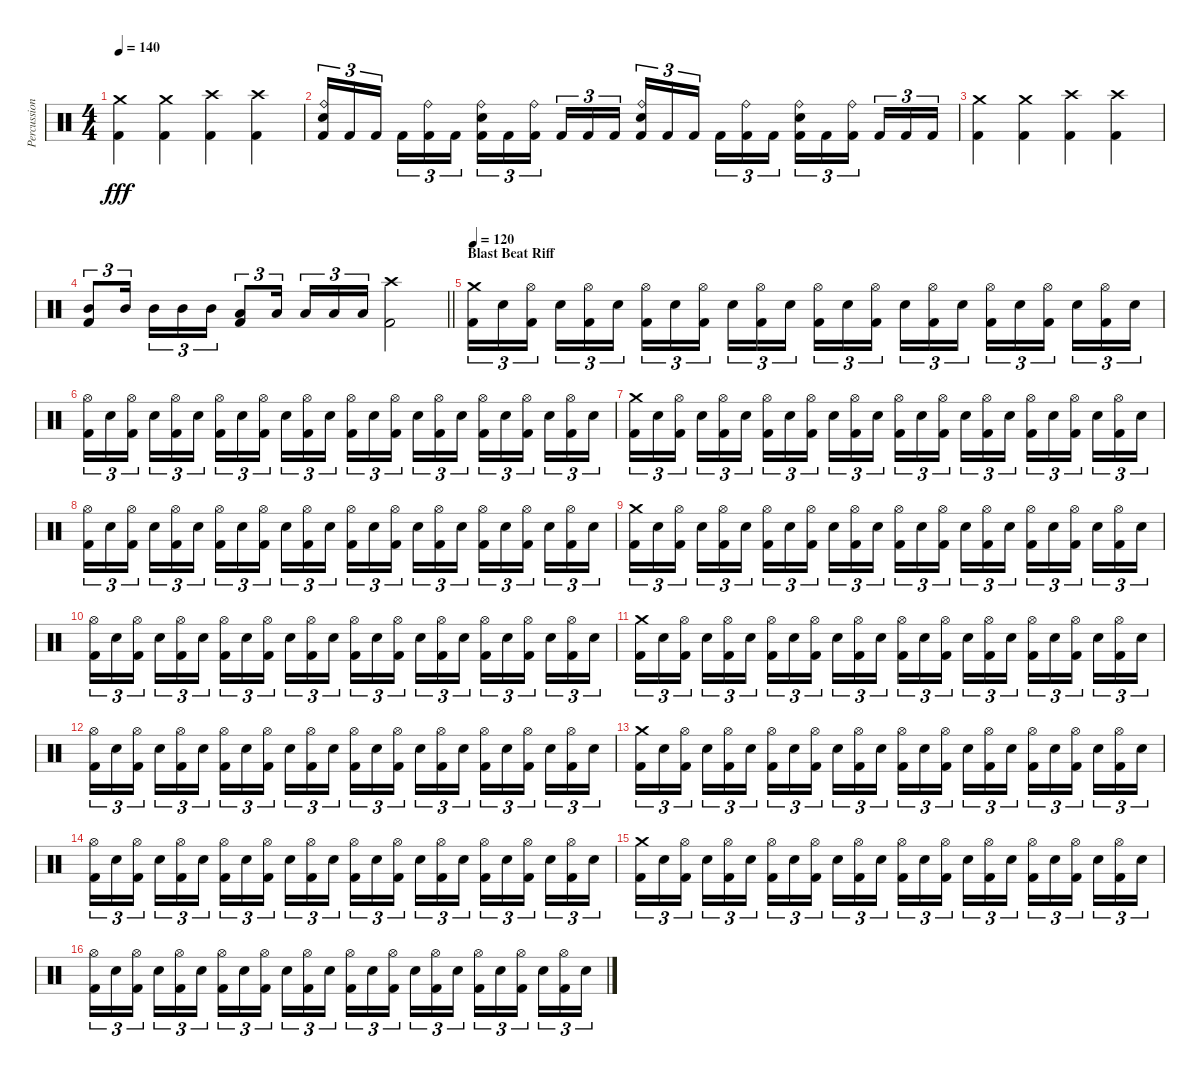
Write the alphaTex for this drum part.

\track ("Percussions" "Percussion") {instrument percussion}
\staff {score}
\articulation defaults
\ts (4 4)
\tempo 140
\clef neutral
\ks c
("Crash medium (hit)" "Kick (hit) 2").4{dy fff} ("Crash medium (hit)" "Kick (hit) 2").4 ("Crash high (hit)" "Kick (hit) 2").4 ("Crash high (hit)" "Kick (hit) 2").4 |
("Ride (bell)" "Snare (hit) 2" "Kick (hit) 2").16{tu (3 2)} "Kick (hit) 2".16{tu (3 2)} "Kick (hit) 2".16{tu (3 2) beam splitsecondary} "Kick (hit) 2".16{tu (3 2)} ("Ride (bell)" "Kick (hit) 2").16{tu (3 2)} "Kick (hit) 2".16{tu (3 2)} ("Ride (bell)" "Snare (hit) 2" "Kick (hit) 2").16{tu (3 2)} "Kick (hit) 2".16{tu (3 2)} ("Ride (bell)" "Kick (hit) 2").16{tu (3 2) beam splitsecondary} "Kick (hit) 2".16{tu (3 2)} "Kick (hit) 2".16{tu (3 2)} "Kick (hit) 2".16{tu (3 2)} ("Ride (bell)" "Snare (hit) 2" "Kick (hit) 2").16{tu (3 2)} "Kick (hit) 2".16{tu (3 2)} "Kick (hit) 2".16{tu (3 2) beam splitsecondary} "Kick (hit) 2".16{tu (3 2)} ("Ride (bell)" "Kick (hit) 2").16{tu (3 2)} "Kick (hit) 2".16{tu (3 2)} ("Ride (bell)" "Snare (hit) 2" "Kick (hit) 2").16{tu (3 2)} "Kick (hit) 2".16{tu (3 2)} ("Ride (bell)" "Kick (hit) 2").16{tu (3 2) beam splitsecondary} "Kick (hit) 2".16{tu (3 2)} "Kick (hit) 2".16{tu (3 2)} "Kick (hit) 2".16{tu (3 2)} |
("Crash medium (hit)" "Kick (hit) 2").4 ("Crash medium (hit)" "Kick (hit) 2").4 ("Crash high (hit)" "Kick (hit) 2").4 ("Crash high (hit)" "Kick (hit) 2").4 |
\barLineRight lightlight
("Mid Tom (hit)" "Kick (hit) 2").8{tu (3 2)} "Mid Tom (hit)".16{tu (3 2) beam splitsecondary} "Mid Tom (hit)".16{tu (3 2)} "Mid Tom (hit)".16{tu (3 2)} "Mid Tom (hit)".16{tu (3 2)} ("Low Tom (hit)" "Kick (hit) 2").8{tu (3 2)} "Low Tom (hit)".16{tu (3 2) beam splitsecondary} "Low Tom (hit)".16{tu (3 2)} "Low Tom (hit)".16{tu (3 2)} "Low Tom (hit)".16{tu (3 2)} ("Crash high (hit)" "Kick (hit) 2").2 |
\section ("" "Blast Beat Riff")
\tempo 120
("Crash medium (hit)" "Kick (hit) 2").16{tu (3 2)} "Snare (hit) 2".16{tu (3 2)} ("Hi-Hat (open)" "Kick (hit) 2").16{tu (3 2) beam splitsecondary} "Snare (hit) 2".16{tu (3 2)} ("Hi-Hat (open)" "Kick (hit) 2").16{tu (3 2)} "Snare (hit) 2".16{tu (3 2)} ("Hi-Hat (open)" "Kick (hit) 2").16{tu (3 2)} "Snare (hit) 2".16{tu (3 2)} ("Hi-Hat (open)" "Kick (hit) 2").16{tu (3 2) beam splitsecondary} "Snare (hit) 2".16{tu (3 2)} ("Hi-Hat (open)" "Kick (hit) 2").16{tu (3 2)} "Snare (hit) 2".16{tu (3 2)} ("Hi-Hat (open)" "Kick (hit) 2").16{tu (3 2)} "Snare (hit) 2".16{tu (3 2)} ("Hi-Hat (open)" "Kick (hit) 2").16{tu (3 2) beam splitsecondary} "Snare (hit) 2".16{tu (3 2)} ("Hi-Hat (open)" "Kick (hit) 2").16{tu (3 2)} "Snare (hit) 2".16{tu (3 2)} ("Hi-Hat (open)" "Kick (hit) 2").16{tu (3 2)} "Snare (hit) 2".16{tu (3 2)} ("Hi-Hat (open)" "Kick (hit) 2").16{tu (3 2) beam splitsecondary} "Snare (hit) 2".16{tu (3 2)} ("Hi-Hat (open)" "Kick (hit) 2").16{tu (3 2)} "Snare (hit) 2".16{tu (3 2)} |
("Hi-Hat (open)" "Kick (hit) 2").16{tu (3 2)} "Snare (hit) 2".16{tu (3 2)} ("Hi-Hat (open)" "Kick (hit) 2").16{tu (3 2) beam splitsecondary} "Snare (hit) 2".16{tu (3 2)} ("Hi-Hat (open)" "Kick (hit) 2").16{tu (3 2)} "Snare (hit) 2".16{tu (3 2)} ("Hi-Hat (open)" "Kick (hit) 2").16{tu (3 2)} "Snare (hit) 2".16{tu (3 2)} ("Hi-Hat (open)" "Kick (hit) 2").16{tu (3 2) beam splitsecondary} "Snare (hit) 2".16{tu (3 2)} ("Hi-Hat (open)" "Kick (hit) 2").16{tu (3 2)} "Snare (hit) 2".16{tu (3 2)} ("Hi-Hat (open)" "Kick (hit) 2").16{tu (3 2)} "Snare (hit) 2".16{tu (3 2)} ("Hi-Hat (open)" "Kick (hit) 2").16{tu (3 2) beam splitsecondary} "Snare (hit) 2".16{tu (3 2)} ("Hi-Hat (open)" "Kick (hit) 2").16{tu (3 2)} "Snare (hit) 2".16{tu (3 2)} ("Hi-Hat (open)" "Kick (hit) 2").16{tu (3 2)} "Snare (hit) 2".16{tu (3 2)} ("Hi-Hat (open)" "Kick (hit) 2").16{tu (3 2) beam splitsecondary} "Snare (hit) 2".16{tu (3 2)} ("Hi-Hat (open)" "Kick (hit) 2").16{tu (3 2)} "Snare (hit) 2".16{tu (3 2)} |
("Crash medium (hit)" "Kick (hit) 2").16{tu (3 2)} "Snare (hit) 2".16{tu (3 2)} ("Hi-Hat (open)" "Kick (hit) 2").16{tu (3 2) beam splitsecondary} "Snare (hit) 2".16{tu (3 2)} ("Hi-Hat (open)" "Kick (hit) 2").16{tu (3 2)} "Snare (hit) 2".16{tu (3 2)} ("Hi-Hat (open)" "Kick (hit) 2").16{tu (3 2)} "Snare (hit) 2".16{tu (3 2)} ("Hi-Hat (open)" "Kick (hit) 2").16{tu (3 2) beam splitsecondary} "Snare (hit) 2".16{tu (3 2)} ("Hi-Hat (open)" "Kick (hit) 2").16{tu (3 2)} "Snare (hit) 2".16{tu (3 2)} ("Hi-Hat (open)" "Kick (hit) 2").16{tu (3 2)} "Snare (hit) 2".16{tu (3 2)} ("Hi-Hat (open)" "Kick (hit) 2").16{tu (3 2) beam splitsecondary} "Snare (hit) 2".16{tu (3 2)} ("Hi-Hat (open)" "Kick (hit) 2").16{tu (3 2)} "Snare (hit) 2".16{tu (3 2)} ("Hi-Hat (open)" "Kick (hit) 2").16{tu (3 2)} "Snare (hit) 2".16{tu (3 2)} ("Hi-Hat (open)" "Kick (hit) 2").16{tu (3 2) beam splitsecondary} "Snare (hit) 2".16{tu (3 2)} ("Hi-Hat (open)" "Kick (hit) 2").16{tu (3 2)} "Snare (hit) 2".16{tu (3 2)} |
("Hi-Hat (open)" "Kick (hit) 2").16{tu (3 2)} "Snare (hit) 2".16{tu (3 2)} ("Hi-Hat (open)" "Kick (hit) 2").16{tu (3 2) beam splitsecondary} "Snare (hit) 2".16{tu (3 2)} ("Hi-Hat (open)" "Kick (hit) 2").16{tu (3 2)} "Snare (hit) 2".16{tu (3 2)} ("Hi-Hat (open)" "Kick (hit) 2").16{tu (3 2)} "Snare (hit) 2".16{tu (3 2)} ("Hi-Hat (open)" "Kick (hit) 2").16{tu (3 2) beam splitsecondary} "Snare (hit) 2".16{tu (3 2)} ("Hi-Hat (open)" "Kick (hit) 2").16{tu (3 2)} "Snare (hit) 2".16{tu (3 2)} ("Hi-Hat (open)" "Kick (hit) 2").16{tu (3 2)} "Snare (hit) 2".16{tu (3 2)} ("Hi-Hat (open)" "Kick (hit) 2").16{tu (3 2) beam splitsecondary} "Snare (hit) 2".16{tu (3 2)} ("Hi-Hat (open)" "Kick (hit) 2").16{tu (3 2)} "Snare (hit) 2".16{tu (3 2)} ("Hi-Hat (open)" "Kick (hit) 2").16{tu (3 2)} "Snare (hit) 2".16{tu (3 2)} ("Hi-Hat (open)" "Kick (hit) 2").16{tu (3 2) beam splitsecondary} "Snare (hit) 2".16{tu (3 2)} ("Hi-Hat (open)" "Kick (hit) 2").16{tu (3 2)} "Snare (hit) 2".16{tu (3 2)} |
("Crash medium (hit)" "Kick (hit) 2").16{tu (3 2)} "Snare (hit) 2".16{tu (3 2)} ("Hi-Hat (open)" "Kick (hit) 2").16{tu (3 2) beam splitsecondary} "Snare (hit) 2".16{tu (3 2)} ("Hi-Hat (open)" "Kick (hit) 2").16{tu (3 2)} "Snare (hit) 2".16{tu (3 2)} ("Hi-Hat (open)" "Kick (hit) 2").16{tu (3 2)} "Snare (hit) 2".16{tu (3 2)} ("Hi-Hat (open)" "Kick (hit) 2").16{tu (3 2) beam splitsecondary} "Snare (hit) 2".16{tu (3 2)} ("Hi-Hat (open)" "Kick (hit) 2").16{tu (3 2)} "Snare (hit) 2".16{tu (3 2)} ("Hi-Hat (open)" "Kick (hit) 2").16{tu (3 2)} "Snare (hit) 2".16{tu (3 2)} ("Hi-Hat (open)" "Kick (hit) 2").16{tu (3 2) beam splitsecondary} "Snare (hit) 2".16{tu (3 2)} ("Hi-Hat (open)" "Kick (hit) 2").16{tu (3 2)} "Snare (hit) 2".16{tu (3 2)} ("Hi-Hat (open)" "Kick (hit) 2").16{tu (3 2)} "Snare (hit) 2".16{tu (3 2)} ("Hi-Hat (open)" "Kick (hit) 2").16{tu (3 2) beam splitsecondary} "Snare (hit) 2".16{tu (3 2)} ("Hi-Hat (open)" "Kick (hit) 2").16{tu (3 2)} "Snare (hit) 2".16{tu (3 2)} |
("Hi-Hat (open)" "Kick (hit) 2").16{tu (3 2)} "Snare (hit) 2".16{tu (3 2)} ("Hi-Hat (open)" "Kick (hit) 2").16{tu (3 2) beam splitsecondary} "Snare (hit) 2".16{tu (3 2)} ("Hi-Hat (open)" "Kick (hit) 2").16{tu (3 2)} "Snare (hit) 2".16{tu (3 2)} ("Hi-Hat (open)" "Kick (hit) 2").16{tu (3 2)} "Snare (hit) 2".16{tu (3 2)} ("Hi-Hat (open)" "Kick (hit) 2").16{tu (3 2) beam splitsecondary} "Snare (hit) 2".16{tu (3 2)} ("Hi-Hat (open)" "Kick (hit) 2").16{tu (3 2)} "Snare (hit) 2".16{tu (3 2)} ("Hi-Hat (open)" "Kick (hit) 2").16{tu (3 2)} "Snare (hit) 2".16{tu (3 2)} ("Hi-Hat (open)" "Kick (hit) 2").16{tu (3 2) beam splitsecondary} "Snare (hit) 2".16{tu (3 2)} ("Hi-Hat (open)" "Kick (hit) 2").16{tu (3 2)} "Snare (hit) 2".16{tu (3 2)} ("Hi-Hat (open)" "Kick (hit) 2").16{tu (3 2)} "Snare (hit) 2".16{tu (3 2)} ("Hi-Hat (open)" "Kick (hit) 2").16{tu (3 2) beam splitsecondary} "Snare (hit) 2".16{tu (3 2)} ("Hi-Hat (open)" "Kick (hit) 2").16{tu (3 2)} "Snare (hit) 2".16{tu (3 2)} |
("Crash medium (hit)" "Kick (hit) 2").16{tu (3 2)} "Snare (hit) 2".16{tu (3 2)} ("Hi-Hat (open)" "Kick (hit) 2").16{tu (3 2) beam splitsecondary} "Snare (hit) 2".16{tu (3 2)} ("Hi-Hat (open)" "Kick (hit) 2").16{tu (3 2)} "Snare (hit) 2".16{tu (3 2)} ("Hi-Hat (open)" "Kick (hit) 2").16{tu (3 2)} "Snare (hit) 2".16{tu (3 2)} ("Hi-Hat (open)" "Kick (hit) 2").16{tu (3 2) beam splitsecondary} "Snare (hit) 2".16{tu (3 2)} ("Hi-Hat (open)" "Kick (hit) 2").16{tu (3 2)} "Snare (hit) 2".16{tu (3 2)} ("Hi-Hat (open)" "Kick (hit) 2").16{tu (3 2)} "Snare (hit) 2".16{tu (3 2)} ("Hi-Hat (open)" "Kick (hit) 2").16{tu (3 2) beam splitsecondary} "Snare (hit) 2".16{tu (3 2)} ("Hi-Hat (open)" "Kick (hit) 2").16{tu (3 2)} "Snare (hit) 2".16{tu (3 2)} ("Hi-Hat (open)" "Kick (hit) 2").16{tu (3 2)} "Snare (hit) 2".16{tu (3 2)} ("Hi-Hat (open)" "Kick (hit) 2").16{tu (3 2) beam splitsecondary} "Snare (hit) 2".16{tu (3 2)} ("Hi-Hat (open)" "Kick (hit) 2").16{tu (3 2)} "Snare (hit) 2".16{tu (3 2)} |
("Hi-Hat (open)" "Kick (hit) 2").16{tu (3 2)} "Snare (hit) 2".16{tu (3 2)} ("Hi-Hat (open)" "Kick (hit) 2").16{tu (3 2) beam splitsecondary} "Snare (hit) 2".16{tu (3 2)} ("Hi-Hat (open)" "Kick (hit) 2").16{tu (3 2)} "Snare (hit) 2".16{tu (3 2)} ("Hi-Hat (open)" "Kick (hit) 2").16{tu (3 2)} "Snare (hit) 2".16{tu (3 2)} ("Hi-Hat (open)" "Kick (hit) 2").16{tu (3 2) beam splitsecondary} "Snare (hit) 2".16{tu (3 2)} ("Hi-Hat (open)" "Kick (hit) 2").16{tu (3 2)} "Snare (hit) 2".16{tu (3 2)} ("Hi-Hat (open)" "Kick (hit) 2").16{tu (3 2)} "Snare (hit) 2".16{tu (3 2)} ("Hi-Hat (open)" "Kick (hit) 2").16{tu (3 2) beam splitsecondary} "Snare (hit) 2".16{tu (3 2)} ("Hi-Hat (open)" "Kick (hit) 2").16{tu (3 2)} "Snare (hit) 2".16{tu (3 2)} ("Hi-Hat (open)" "Kick (hit) 2").16{tu (3 2)} "Snare (hit) 2".16{tu (3 2)} ("Hi-Hat (open)" "Kick (hit) 2").16{tu (3 2) beam splitsecondary} "Snare (hit) 2".16{tu (3 2)} ("Hi-Hat (open)" "Kick (hit) 2").16{tu (3 2)} "Snare (hit) 2".16{tu (3 2)} |
("Crash medium (hit)" "Kick (hit) 2").16{tu (3 2)} "Snare (hit) 2".16{tu (3 2)} ("Hi-Hat (open)" "Kick (hit) 2").16{tu (3 2) beam splitsecondary} "Snare (hit) 2".16{tu (3 2)} ("Hi-Hat (open)" "Kick (hit) 2").16{tu (3 2)} "Snare (hit) 2".16{tu (3 2)} ("Hi-Hat (open)" "Kick (hit) 2").16{tu (3 2)} "Snare (hit) 2".16{tu (3 2)} ("Hi-Hat (open)" "Kick (hit) 2").16{tu (3 2) beam splitsecondary} "Snare (hit) 2".16{tu (3 2)} ("Hi-Hat (open)" "Kick (hit) 2").16{tu (3 2)} "Snare (hit) 2".16{tu (3 2)} ("Hi-Hat (open)" "Kick (hit) 2").16{tu (3 2)} "Snare (hit) 2".16{tu (3 2)} ("Hi-Hat (open)" "Kick (hit) 2").16{tu (3 2) beam splitsecondary} "Snare (hit) 2".16{tu (3 2)} ("Hi-Hat (open)" "Kick (hit) 2").16{tu (3 2)} "Snare (hit) 2".16{tu (3 2)} ("Hi-Hat (open)" "Kick (hit) 2").16{tu (3 2)} "Snare (hit) 2".16{tu (3 2)} ("Hi-Hat (open)" "Kick (hit) 2").16{tu (3 2) beam splitsecondary} "Snare (hit) 2".16{tu (3 2)} ("Hi-Hat (open)" "Kick (hit) 2").16{tu (3 2)} "Snare (hit) 2".16{tu (3 2)} |
("Hi-Hat (open)" "Kick (hit) 2").16{tu (3 2)} "Snare (hit) 2".16{tu (3 2)} ("Hi-Hat (open)" "Kick (hit) 2").16{tu (3 2) beam splitsecondary} "Snare (hit) 2".16{tu (3 2)} ("Hi-Hat (open)" "Kick (hit) 2").16{tu (3 2)} "Snare (hit) 2".16{tu (3 2)} ("Hi-Hat (open)" "Kick (hit) 2").16{tu (3 2)} "Snare (hit) 2".16{tu (3 2)} ("Hi-Hat (open)" "Kick (hit) 2").16{tu (3 2) beam splitsecondary} "Snare (hit) 2".16{tu (3 2)} ("Hi-Hat (open)" "Kick (hit) 2").16{tu (3 2)} "Snare (hit) 2".16{tu (3 2)} ("Hi-Hat (open)" "Kick (hit) 2").16{tu (3 2)} "Snare (hit) 2".16{tu (3 2)} ("Hi-Hat (open)" "Kick (hit) 2").16{tu (3 2) beam splitsecondary} "Snare (hit) 2".16{tu (3 2)} ("Hi-Hat (open)" "Kick (hit) 2").16{tu (3 2)} "Snare (hit) 2".16{tu (3 2)} ("Hi-Hat (open)" "Kick (hit) 2").16{tu (3 2)} "Snare (hit) 2".16{tu (3 2)} ("Hi-Hat (open)" "Kick (hit) 2").16{tu (3 2) beam splitsecondary} "Snare (hit) 2".16{tu (3 2)} ("Hi-Hat (open)" "Kick (hit) 2").16{tu (3 2)} "Snare (hit) 2".16{tu (3 2)} |
("Crash medium (hit)" "Kick (hit) 2").16{tu (3 2)} "Snare (hit) 2".16{tu (3 2)} ("Hi-Hat (open)" "Kick (hit) 2").16{tu (3 2) beam splitsecondary} "Snare (hit) 2".16{tu (3 2)} ("Hi-Hat (open)" "Kick (hit) 2").16{tu (3 2)} "Snare (hit) 2".16{tu (3 2)} ("Hi-Hat (open)" "Kick (hit) 2").16{tu (3 2)} "Snare (hit) 2".16{tu (3 2)} ("Hi-Hat (open)" "Kick (hit) 2").16{tu (3 2) beam splitsecondary} "Snare (hit) 2".16{tu (3 2)} ("Hi-Hat (open)" "Kick (hit) 2").16{tu (3 2)} "Snare (hit) 2".16{tu (3 2)} ("Hi-Hat (open)" "Kick (hit) 2").16{tu (3 2)} "Snare (hit) 2".16{tu (3 2)} ("Hi-Hat (open)" "Kick (hit) 2").16{tu (3 2) beam splitsecondary} "Snare (hit) 2".16{tu (3 2)} ("Hi-Hat (open)" "Kick (hit) 2").16{tu (3 2)} "Snare (hit) 2".16{tu (3 2)} ("Hi-Hat (open)" "Kick (hit) 2").16{tu (3 2)} "Snare (hit) 2".16{tu (3 2)} ("Hi-Hat (open)" "Kick (hit) 2").16{tu (3 2) beam splitsecondary} "Snare (hit) 2".16{tu (3 2)} ("Hi-Hat (open)" "Kick (hit) 2").16{tu (3 2)} "Snare (hit) 2".16{tu (3 2)} |
("Hi-Hat (open)" "Kick (hit) 2").16{tu (3 2)} "Snare (hit) 2".16{tu (3 2)} ("Hi-Hat (open)" "Kick (hit) 2").16{tu (3 2) beam splitsecondary} "Snare (hit) 2".16{tu (3 2)} ("Hi-Hat (open)" "Kick (hit) 2").16{tu (3 2)} "Snare (hit) 2".16{tu (3 2)} ("Hi-Hat (open)" "Kick (hit) 2").16{tu (3 2)} "Snare (hit) 2".16{tu (3 2)} ("Hi-Hat (open)" "Kick (hit) 2").16{tu (3 2) beam splitsecondary} "Snare (hit) 2".16{tu (3 2)} ("Hi-Hat (open)" "Kick (hit) 2").16{tu (3 2)} "Snare (hit) 2".16{tu (3 2)} ("Hi-Hat (open)" "Kick (hit) 2").16{tu (3 2)} "Snare (hit) 2".16{tu (3 2)} ("Hi-Hat (open)" "Kick (hit) 2").16{tu (3 2) beam splitsecondary} "Snare (hit) 2".16{tu (3 2)} ("Hi-Hat (open)" "Kick (hit) 2").16{tu (3 2)} "Snare (hit) 2".16{tu (3 2)} ("Hi-Hat (open)" "Kick (hit) 2").16{tu (3 2)} "Snare (hit) 2".16{tu (3 2)} ("Hi-Hat (open)" "Kick (hit) 2").16{tu (3 2) beam splitsecondary} "Snare (hit) 2".16{tu (3 2)} ("Hi-Hat (open)" "Kick (hit) 2").16{tu (3 2)} "Snare (hit) 2".16{tu (3 2)}
